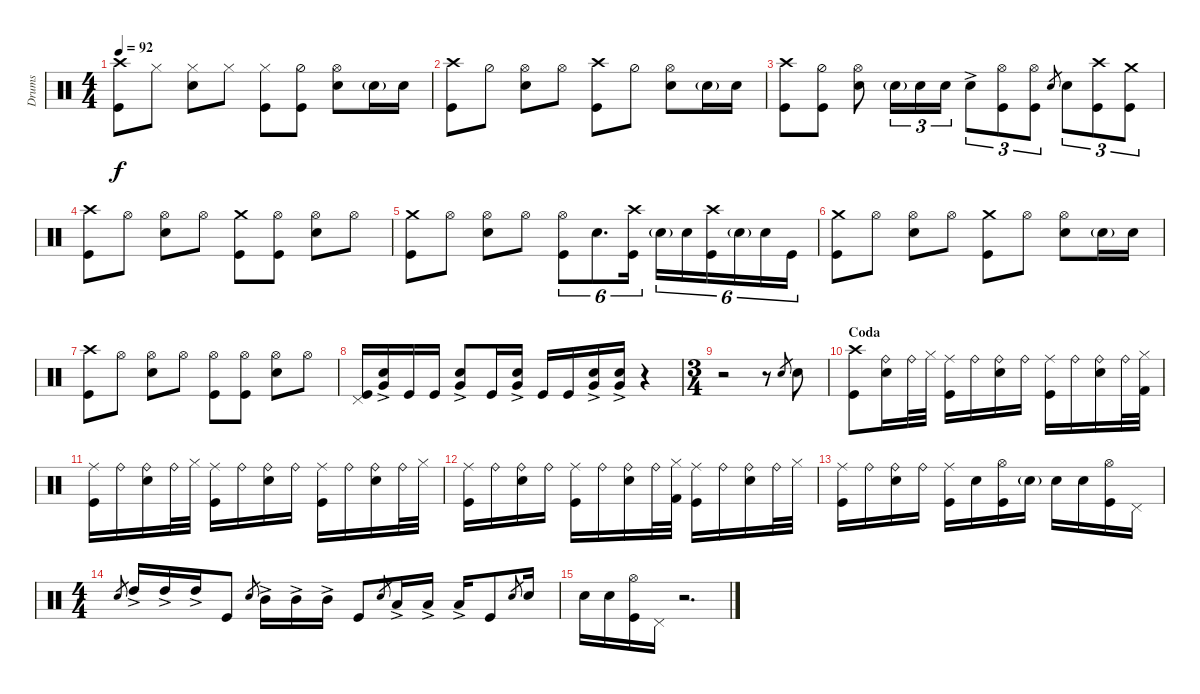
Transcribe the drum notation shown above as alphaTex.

\track ("Drums" "Drums") {instrument percussion}
\staff {score}
\articulation defaults
\ts (4 4)
\tempo 92
\clef neutral
\ks c
("Kick (hit)" "Crash high (hit)").8{dy f} "Hi-Hat (closed)".8 ("Hi-Hat (closed)" "Snare (hit) 2").8 "Hi-Hat (closed)".8 ("Kick (hit)" "Hi-Hat (closed)").8 ("Hi-Hat (half)" "Kick (hit)").8 ("Hi-Hat (open)" "Snare (hit) 2").8 "Snare (hit) 2"{g}.16 "Snare (hit) 2".16 |
("Kick (hit)" "Crash high (hit)").8 "Hi-Hat (half)".8 ("Hi-Hat (open)" "Snare (hit) 2").8 "Hi-Hat (open)".8 ("Kick (hit)" "Crash high (hit)").8 "Hi-Hat (half)".8 ("Hi-Hat (open)" "Snare (hit) 2").8 "Snare (hit) 2"{g}.16 "Snare (hit) 2".16 |
("Kick (hit)" "Crash high (hit)").8 ("Kick (hit)" "Hi-Hat (half)").8 ("Hi-Hat (open)" "Snare (hit) 2").8 "Snare (hit) 2"{g}.16{tu (3 2)} "Snare (hit) 2".16{tu (3 2)} "Snare (hit) 2".16{tu (3 2)} "Snare (hit) 2"{ac}.8{tu (3 2)} ("Hi-Hat (open)" "Kick (hit)").8{tu (3 2)} ("Hi-Hat (open)" "Kick (hit)").8{tu (3 2)} "Snare (hit)".8{gr} "Snare (hit) 2".8{tu (3 2)} ("Crash high (hit)" "Kick (hit)").8{tu (3 2)} ("Crash medium (hit)" "Kick (hit)").8{tu (3 2)} |
("Kick (hit)" "Crash high (hit)").8 "Hi-Hat (open)".8 ("Hi-Hat (open)" "Snare (hit) 2").8 "Hi-Hat (open)".8 ("Kick (hit)" "Crash medium (hit)").8 ("Hi-Hat (open)" "Kick (hit)").8 ("Hi-Hat (open)" "Snare (hit) 2").8 "Hi-Hat (open)".8 |
("Crash medium (hit)" "Kick (hit)").8 "Hi-Hat (open)".8 ("Hi-Hat (open)" "Snare (hit) 2").8 "Hi-Hat (open)".8 ("Kick (hit)" "Hi-Hat (open)").8{tu (6 4)} "Snare (hit) 2".8{d tu (6 4)} ("Crash high (hit)" "Kick (hit)").16{tu (6 4)} "Snare (hit) 2"{g}.16{tu (6 4)} "Snare (hit) 2".16{tu (6 4)} ("Crash high (hit)" "Kick (hit)").16{tu (6 4)} "Snare (hit) 2"{g}.16{tu (6 4)} "Snare (hit) 2".16{tu (6 4)} "Kick (hit)".16{tu (6 4)} |
("Kick (hit)" "Crash medium (hit)").8 "Hi-Hat (open)".8 ("Hi-Hat (open)" "Snare (hit) 2").8 "Hi-Hat (open)".8 ("Kick (hit)" "Crash medium (hit)").8 "Hi-Hat (open)".8 ("Hi-Hat (open)" "Snare (hit) 2").8 "Snare (hit) 2"{g}.16 "Snare (hit) 2".16 |
("Kick (hit)" "Crash high (hit)").8 "Hi-Hat (open)".8 ("Hi-Hat (open)" "Snare (hit) 2").8 "Hi-Hat (open)".8 ("Hi-Hat (open)" "Kick (hit)").8 ("Hi-Hat (open)" "Kick (hit)").8 ("Hi-Hat (open)" "Snare (hit) 2").8 "Hi-Hat (open)".8 |
("Kick (hit)" "Pedal Hi-Hat (hit)").16 ("Very Low Tom (hit)"{ac} "Snare (hit) 2").16 "Kick (hit)".16 "Kick (hit)".16 ("Very Low Tom (hit)"{ac} "Snare (hit) 2").8 "Kick (hit)".16 ("Very Low Tom (hit)"{ac} "Snare (hit) 2").16 "Kick (hit)".16 "Kick (hit)".16 ("Very Low Tom (hit)"{ac} "Snare (hit) 2").16 ("Very Low Tom (hit)"{ac} "Snare (hit) 2").16 r.4 |
\ts (3 4)
r.2 r.8 "Snare (hit)".8{gr} "Snare (hit) 2".8 |
\section ("" "Coda")
("Kick (hit)" "Crash high (hit)").8 ("Ride (bell)" "Snare (hit) 2").16 "Ride (bell)".32 "Hi-Hat (closed)".32 ("Ride (middle)" "Kick (hit)").16 "Ride (bell)".16 ("Ride (bell)" "Snare (hit) 2").16 "Ride (bell)".16 ("Ride (middle)" "Kick (hit)").16 "Ride (bell)".16 ("Ride (bell)" "Snare (hit) 2").16 "Ride (bell)".32 ("Hi-Hat (closed)" "Kick (hit) 2").32 |
("Ride (middle)" "Kick (hit)").16 "Ride (bell)".16 ("Ride (bell)" "Snare (hit) 2").16 "Ride (bell)".32 "Hi-Hat (closed)".32 ("Ride (middle)" "Kick (hit)").16 "Ride (bell)".16 ("Ride (bell)" "Snare (hit) 2").16 "Ride (bell)".16 ("Ride (middle)" "Kick (hit)").16 "Ride (bell)".16 ("Ride (bell)" "Snare (hit) 2").16 "Ride (bell)".32 "Hi-Hat (closed)".32 |
("Ride (middle)" "Kick (hit)").16 "Ride (bell)".16 ("Ride (bell)" "Snare (hit) 2").16 "Ride (bell)".16 ("Ride (middle)" "Kick (hit)").16 "Ride (bell)".16 ("Ride (bell)" "Snare (hit) 2").16 "Ride (bell)".32 ("Hi-Hat (closed)" "Kick (hit) 2").32 ("Ride (middle)" "Kick (hit)").16 "Ride (bell)".16 ("Ride (bell)" "Snare (hit) 2").16 "Ride (bell)".32 "Hi-Hat (closed)".32 |
("Ride (middle)" "Kick (hit)").16 "Ride (bell)".16 ("Ride (bell)" "Snare (hit) 2").16 "Ride (bell)".16 ("Ride (middle)" "Kick (hit)").16 "Snare (hit) 2".16 ("Hi-Hat (open)" "Kick (hit)").16 "Snare (hit) 2"{g}.16 "Snare (hit) 2".16 "Snare (hit) 2".16 ("Hi-Hat (open)" "Kick (hit)").16 "Pedal Hi-Hat (hit)".16 |
\ts (4 4)
"Snare (hit)".8{gr} "High Tom (hit)"{ac}.16 "High Tom (hit)"{ac}.16 "High Tom (hit)"{ac}.16 "Kick (hit)".8 "Snare (hit)".8{gr} "Mid Tom (hit)"{ac}.16 "Mid Tom (hit)"{ac}.16 "Mid Tom (hit)"{ac}.16 "Kick (hit)".8 "Snare (hit)".8{gr} "Low Tom (hit)"{ac}.16 "Low Tom (hit)"{ac}.16 "Low Tom (hit)"{ac}.16 "Kick (hit)".8 "Snare (hit)".8{gr} "Snare (hit) 2".16 |
"Snare (hit) 2".16 "Snare (hit) 2".16 ("Hi-Hat (open)" "Kick (hit)").16 "Pedal Hi-Hat (hit)".16 r.2{d}
